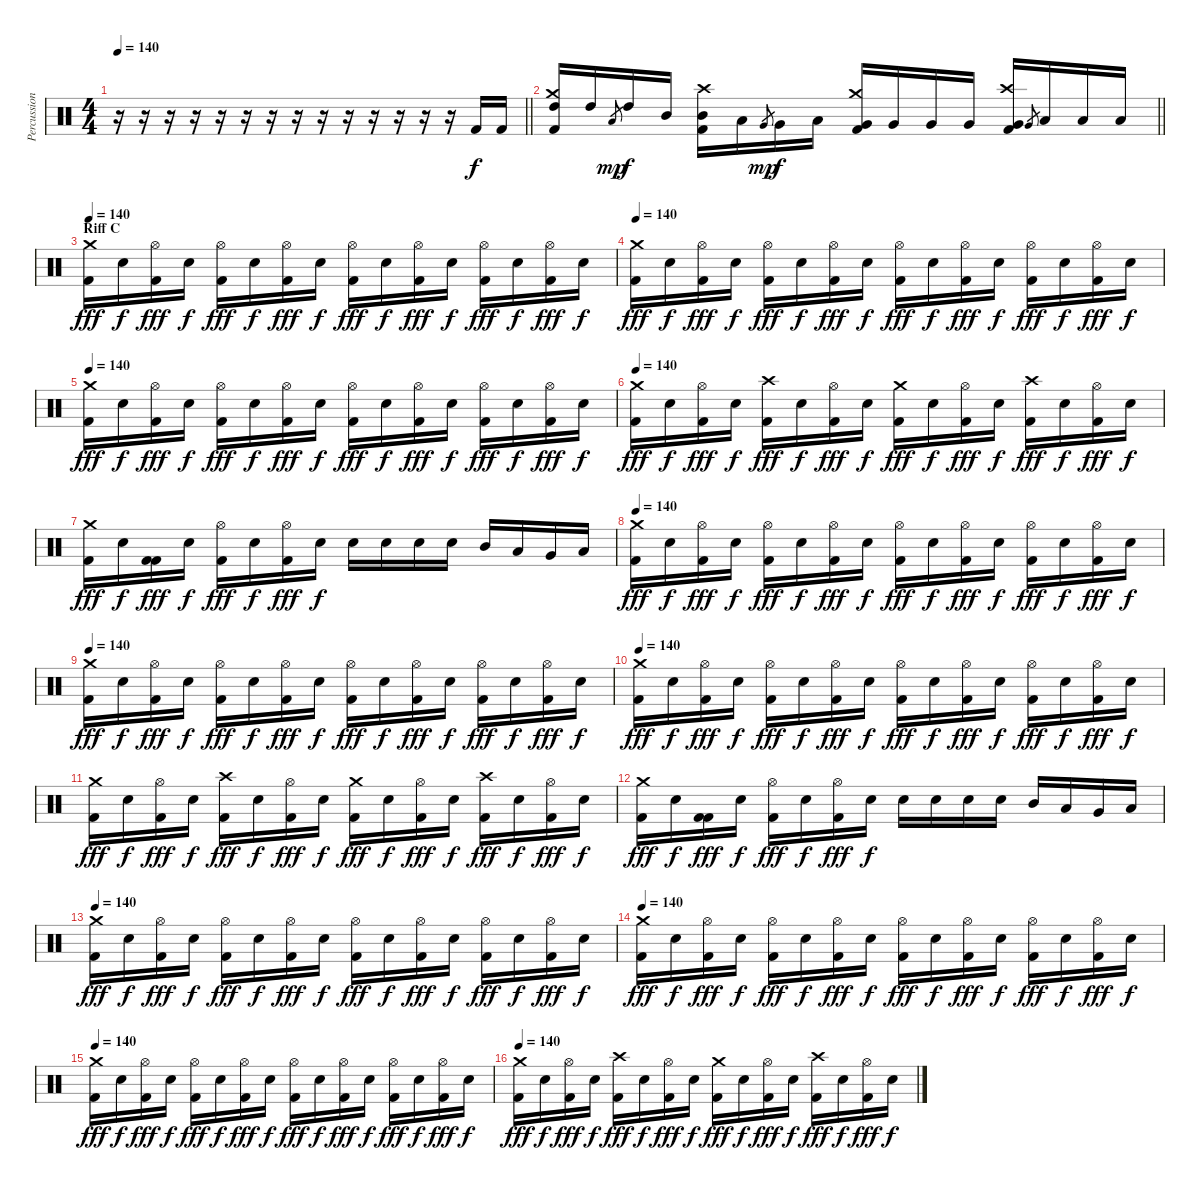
\track ("Percussion" "Percussion") {instrument percussion}
\staff {score}
\articulation defaults
\ts (4 4)
\tempo 140
\clef neutral
\barLineRight lightlight
\ks c
r.16{dy f} r.16 r.16 r.16 r.16 r.16 r.16 r.16 r.16 r.16 r.16 r.16 r.16 r.16 "Kick (hit) 2".16 "Kick (hit) 2".16 |
\barLineRight lightlight
("Crash medium (hit)" "High Tom (hit)" "Kick (hit) 2").16 "High Tom (hit)".16 "Low Tom (hit)".8{gr dy mp} "High Tom (hit)".16{dy f} "Mid Tom (hit)".16 ("Crash high (hit)" "Mid Tom (hit)" "Kick (hit) 2").16 "Low Tom (hit)".16 "Very Low Tom (hit)".8{gr dy mp} "Very Low Tom (hit)".16{dy f} "Low Tom (hit)".16 ("Crash medium (hit)" "Very Low Tom (hit)" "Kick (hit) 2").16 "Very Low Tom (hit)".16 "Very Low Tom (hit)".16 "Very Low Tom (hit)".16 ("Crash high (hit)" "Very Low Tom (hit)" "Kick (hit) 2").16 "Very Low Tom (hit)".8{gr} "Low Floor Tom (hit)".16 "Low Floor Tom (hit)".16 "Low Floor Tom (hit)".16 |
\section ("" "Riff C")
\tempo 140
("Crash medium (hit)" "Kick (hit) 2").16{dy fff} "Snare (hit) 2".16{dy f} ("Hi-Hat (open)" "Kick (hit) 2").16{dy fff} "Snare (hit) 2".16{dy f} ("Hi-Hat (open)" "Kick (hit) 2").16{dy fff} "Snare (hit) 2".16{dy f} ("Hi-Hat (open)" "Kick (hit) 2").16{dy fff} "Snare (hit) 2".16{dy f} ("Hi-Hat (open)" "Kick (hit) 2").16{dy fff} "Snare (hit) 2".16{dy f} ("Hi-Hat (open)" "Kick (hit) 2").16{dy fff} "Snare (hit) 2".16{dy f} ("Hi-Hat (open)" "Kick (hit) 2").16{dy fff} "Snare (hit) 2".16{dy f} ("Hi-Hat (open)" "Kick (hit) 2").16{dy fff} "Snare (hit) 2".16{dy f} |
\tempo 140
("Crash medium (hit)" "Kick (hit) 2").16{dy fff} "Snare (hit) 2".16{dy f} ("Hi-Hat (open)" "Kick (hit) 2").16{dy fff} "Snare (hit) 2".16{dy f} ("Hi-Hat (open)" "Kick (hit) 2").16{dy fff} "Snare (hit) 2".16{dy f} ("Hi-Hat (open)" "Kick (hit) 2").16{dy fff} "Snare (hit) 2".16{dy f} ("Hi-Hat (open)" "Kick (hit) 2").16{dy fff} "Snare (hit) 2".16{dy f} ("Hi-Hat (open)" "Kick (hit) 2").16{dy fff} "Snare (hit) 2".16{dy f} ("Hi-Hat (open)" "Kick (hit) 2").16{dy fff} "Snare (hit) 2".16{dy f} ("Hi-Hat (open)" "Kick (hit) 2").16{dy fff} "Snare (hit) 2".16{dy f} |
\tempo 140
("Crash medium (hit)" "Kick (hit) 2").16{dy fff} "Snare (hit) 2".16{dy f} ("Hi-Hat (open)" "Kick (hit) 2").16{dy fff} "Snare (hit) 2".16{dy f} ("Hi-Hat (open)" "Kick (hit) 2").16{dy fff} "Snare (hit) 2".16{dy f} ("Hi-Hat (open)" "Kick (hit) 2").16{dy fff} "Snare (hit) 2".16{dy f} ("Hi-Hat (open)" "Kick (hit) 2").16{dy fff} "Snare (hit) 2".16{dy f} ("Hi-Hat (open)" "Kick (hit) 2").16{dy fff} "Snare (hit) 2".16{dy f} ("Hi-Hat (open)" "Kick (hit) 2").16{dy fff} "Snare (hit) 2".16{dy f} ("Hi-Hat (open)" "Kick (hit) 2").16{dy fff} "Snare (hit) 2".16{dy f} |
\tempo 140
("Crash medium (hit)" "Kick (hit) 2").16{dy fff} "Snare (hit) 2".16{dy f} ("Hi-Hat (open)" "Kick (hit) 2").16{dy fff} "Snare (hit) 2".16{dy f} ("Crash high (hit)" "Kick (hit) 2").16{dy fff} "Snare (hit) 2".16{dy f} ("Hi-Hat (open)" "Kick (hit) 2").16{dy fff} "Snare (hit) 2".16{dy f} ("Crash medium (hit)" "Kick (hit) 2").16{dy fff} "Snare (hit) 2".16{dy f} ("Hi-Hat (open)" "Kick (hit) 2").16{dy fff} "Snare (hit) 2".16{dy f} ("Crash high (hit)" "Kick (hit) 2").16{dy fff} "Snare (hit) 2".16{dy f} ("Hi-Hat (open)" "Kick (hit) 2").16{dy fff} "Snare (hit) 2".16{dy f} |
("Crash medium (hit)" "Kick (hit) 2").16{dy fff} "Snare (hit) 2".16{dy f} ("Kick (hit) 2" "Kick (hit) 2").16{dy fff} "Snare (hit) 2".16{dy f} ("Hi-Hat (open)" "Kick (hit) 2").16{dy fff} "Snare (hit) 2".16{dy f} ("Hi-Hat (open)" "Kick (hit) 2").16{dy fff} "Snare (hit) 2".16{dy f} "Snare (hit) 2".16 "Snare (hit) 2".16 "Snare (hit) 2".16 "Snare (hit) 2".16 "Mid Tom (hit)".16 "Low Tom (hit)".16 "Very Low Tom (hit)".16 "Low Floor Tom (hit)".16 |
\tempo 140
("Crash medium (hit)" "Kick (hit) 2").16{dy fff} "Snare (hit) 2".16{dy f} ("Hi-Hat (open)" "Kick (hit) 2").16{dy fff} "Snare (hit) 2".16{dy f} ("Hi-Hat (open)" "Kick (hit) 2").16{dy fff} "Snare (hit) 2".16{dy f} ("Hi-Hat (open)" "Kick (hit) 2").16{dy fff} "Snare (hit) 2".16{dy f} ("Hi-Hat (open)" "Kick (hit) 2").16{dy fff} "Snare (hit) 2".16{dy f} ("Hi-Hat (open)" "Kick (hit) 2").16{dy fff} "Snare (hit) 2".16{dy f} ("Hi-Hat (open)" "Kick (hit) 2").16{dy fff} "Snare (hit) 2".16{dy f} ("Hi-Hat (open)" "Kick (hit) 2").16{dy fff} "Snare (hit) 2".16{dy f} |
\tempo 140
("Crash medium (hit)" "Kick (hit) 2").16{dy fff} "Snare (hit) 2".16{dy f} ("Hi-Hat (open)" "Kick (hit) 2").16{dy fff} "Snare (hit) 2".16{dy f} ("Hi-Hat (open)" "Kick (hit) 2").16{dy fff} "Snare (hit) 2".16{dy f} ("Hi-Hat (open)" "Kick (hit) 2").16{dy fff} "Snare (hit) 2".16{dy f} ("Hi-Hat (open)" "Kick (hit) 2").16{dy fff} "Snare (hit) 2".16{dy f} ("Hi-Hat (open)" "Kick (hit) 2").16{dy fff} "Snare (hit) 2".16{dy f} ("Hi-Hat (open)" "Kick (hit) 2").16{dy fff} "Snare (hit) 2".16{dy f} ("Hi-Hat (open)" "Kick (hit) 2").16{dy fff} "Snare (hit) 2".16{dy f} |
\tempo 140
("Crash medium (hit)" "Kick (hit) 2").16{dy fff} "Snare (hit) 2".16{dy f} ("Hi-Hat (open)" "Kick (hit) 2").16{dy fff} "Snare (hit) 2".16{dy f} ("Hi-Hat (open)" "Kick (hit) 2").16{dy fff} "Snare (hit) 2".16{dy f} ("Hi-Hat (open)" "Kick (hit) 2").16{dy fff} "Snare (hit) 2".16{dy f} ("Hi-Hat (open)" "Kick (hit) 2").16{dy fff} "Snare (hit) 2".16{dy f} ("Hi-Hat (open)" "Kick (hit) 2").16{dy fff} "Snare (hit) 2".16{dy f} ("Hi-Hat (open)" "Kick (hit) 2").16{dy fff} "Snare (hit) 2".16{dy f} ("Hi-Hat (open)" "Kick (hit) 2").16{dy fff} "Snare (hit) 2".16{dy f} |
("Crash medium (hit)" "Kick (hit) 2").16{dy fff} "Snare (hit) 2".16{dy f} ("Hi-Hat (open)" "Kick (hit) 2").16{dy fff} "Snare (hit) 2".16{dy f} ("Crash high (hit)" "Kick (hit) 2").16{dy fff} "Snare (hit) 2".16{dy f} ("Hi-Hat (open)" "Kick (hit) 2").16{dy fff} "Snare (hit) 2".16{dy f} ("Crash medium (hit)" "Kick (hit) 2").16{dy fff} "Snare (hit) 2".16{dy f} ("Hi-Hat (open)" "Kick (hit) 2").16{dy fff} "Snare (hit) 2".16{dy f} ("Crash high (hit)" "Kick (hit) 2").16{dy fff} "Snare (hit) 2".16{dy f} ("Hi-Hat (open)" "Kick (hit) 2").16{dy fff} "Snare (hit) 2".16{dy f} |
("Crash medium (hit)" "Kick (hit) 2").16{dy fff} "Snare (hit) 2".16{dy f} ("Kick (hit) 2" "Kick (hit) 2").16{dy fff} "Snare (hit) 2".16{dy f} ("Hi-Hat (open)" "Kick (hit) 2").16{dy fff} "Snare (hit) 2".16{dy f} ("Hi-Hat (open)" "Kick (hit) 2").16{dy fff} "Snare (hit) 2".16{dy f} "Snare (hit) 2".16 "Snare (hit) 2".16 "Snare (hit) 2".16 "Snare (hit) 2".16 "Mid Tom (hit)".16 "Low Tom (hit)".16 "Very Low Tom (hit)".16 "Low Floor Tom (hit)".16 |
\tempo 140
("Crash medium (hit)" "Kick (hit) 2").16{dy fff} "Snare (hit) 2".16{dy f} ("Hi-Hat (open)" "Kick (hit) 2").16{dy fff} "Snare (hit) 2".16{dy f} ("Hi-Hat (open)" "Kick (hit) 2").16{dy fff} "Snare (hit) 2".16{dy f} ("Hi-Hat (open)" "Kick (hit) 2").16{dy fff} "Snare (hit) 2".16{dy f} ("Hi-Hat (open)" "Kick (hit) 2").16{dy fff} "Snare (hit) 2".16{dy f} ("Hi-Hat (open)" "Kick (hit) 2").16{dy fff} "Snare (hit) 2".16{dy f} ("Hi-Hat (open)" "Kick (hit) 2").16{dy fff} "Snare (hit) 2".16{dy f} ("Hi-Hat (open)" "Kick (hit) 2").16{dy fff} "Snare (hit) 2".16{dy f} |
\tempo 140
("Crash medium (hit)" "Kick (hit) 2").16{dy fff} "Snare (hit) 2".16{dy f} ("Hi-Hat (open)" "Kick (hit) 2").16{dy fff} "Snare (hit) 2".16{dy f} ("Hi-Hat (open)" "Kick (hit) 2").16{dy fff} "Snare (hit) 2".16{dy f} ("Hi-Hat (open)" "Kick (hit) 2").16{dy fff} "Snare (hit) 2".16{dy f} ("Hi-Hat (open)" "Kick (hit) 2").16{dy fff} "Snare (hit) 2".16{dy f} ("Hi-Hat (open)" "Kick (hit) 2").16{dy fff} "Snare (hit) 2".16{dy f} ("Hi-Hat (open)" "Kick (hit) 2").16{dy fff} "Snare (hit) 2".16{dy f} ("Hi-Hat (open)" "Kick (hit) 2").16{dy fff} "Snare (hit) 2".16{dy f} |
\tempo 140
("Crash medium (hit)" "Kick (hit) 2").16{dy fff} "Snare (hit) 2".16{dy f} ("Hi-Hat (open)" "Kick (hit) 2").16{dy fff} "Snare (hit) 2".16{dy f} ("Hi-Hat (open)" "Kick (hit) 2").16{dy fff} "Snare (hit) 2".16{dy f} ("Hi-Hat (open)" "Kick (hit) 2").16{dy fff} "Snare (hit) 2".16{dy f} ("Hi-Hat (open)" "Kick (hit) 2").16{dy fff} "Snare (hit) 2".16{dy f} ("Hi-Hat (open)" "Kick (hit) 2").16{dy fff} "Snare (hit) 2".16{dy f} ("Hi-Hat (open)" "Kick (hit) 2").16{dy fff} "Snare (hit) 2".16{dy f} ("Hi-Hat (open)" "Kick (hit) 2").16{dy fff} "Snare (hit) 2".16{dy f} |
\tempo 140
("Crash medium (hit)" "Kick (hit) 2").16{dy fff} "Snare (hit) 2".16{dy f} ("Hi-Hat (open)" "Kick (hit) 2").16{dy fff} "Snare (hit) 2".16{dy f} ("Crash high (hit)" "Kick (hit) 2").16{dy fff} "Snare (hit) 2".16{dy f} ("Hi-Hat (open)" "Kick (hit) 2").16{dy fff} "Snare (hit) 2".16{dy f} ("Crash medium (hit)" "Kick (hit) 2").16{dy fff} "Snare (hit) 2".16{dy f} ("Hi-Hat (open)" "Kick (hit) 2").16{dy fff} "Snare (hit) 2".16{dy f} ("Crash high (hit)" "Kick (hit) 2").16{dy fff} "Snare (hit) 2".16{dy f} ("Hi-Hat (open)" "Kick (hit) 2").16{dy fff} "Snare (hit) 2".16{dy f}
